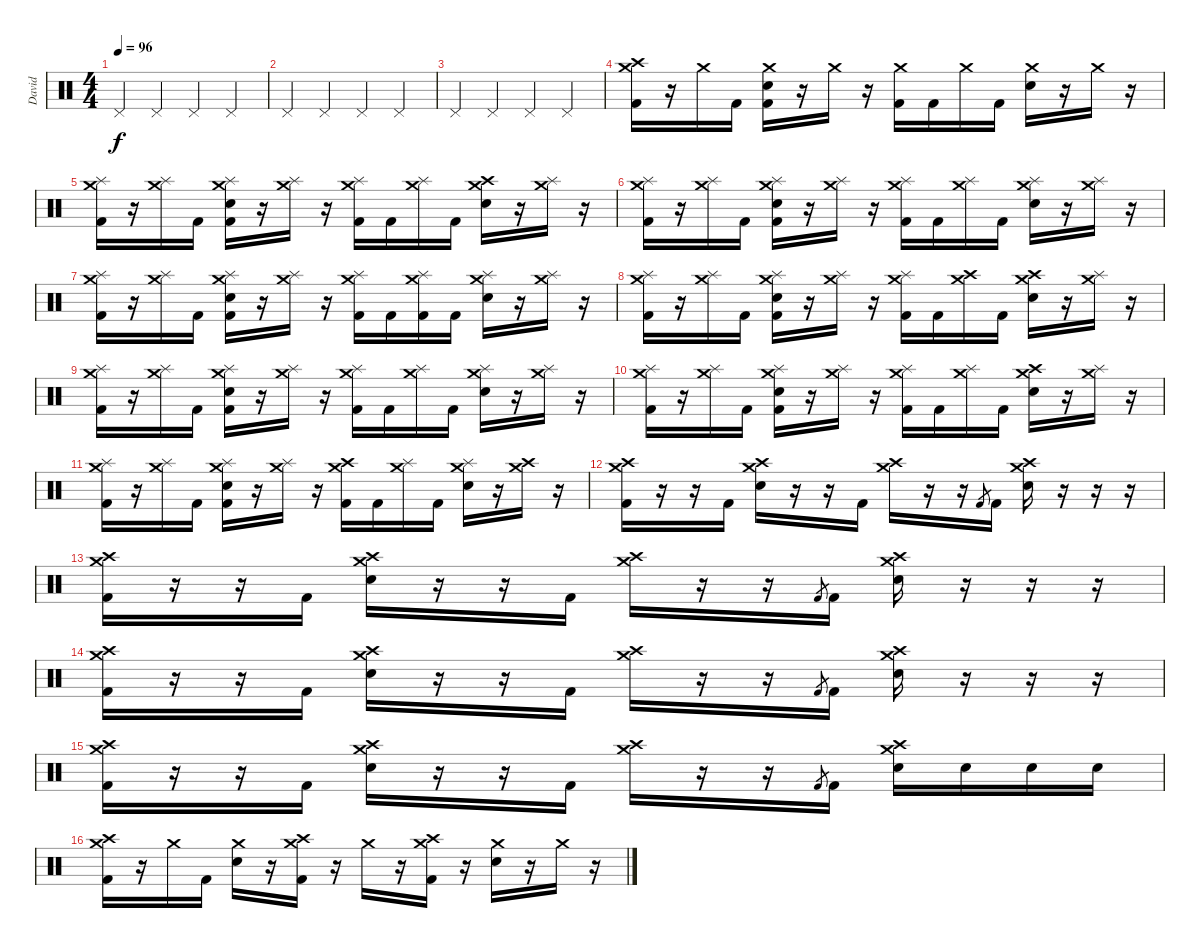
\track ("David" "David") {instrument percussion}
\staff {score}
\articulation defaults
\ts (4 4)
\tempo 96
\clef neutral
\ks c "Pedal Hi-Hat (hit)".4{dy f} "Pedal Hi-Hat (hit)".4 "Pedal Hi-Hat (hit)".4 "Pedal Hi-Hat (hit)".4
|
"Pedal Hi-Hat (hit)".4 "Pedal Hi-Hat (hit)".4 "Pedal Hi-Hat (hit)".4 "Pedal Hi-Hat (hit)".4 |
"Pedal Hi-Hat (hit)".4 "Pedal Hi-Hat (hit)".4 "Pedal Hi-Hat (hit)".4 "Pedal Hi-Hat (hit)".4 |
("Crash high (hit)" "Crash medium (hit)" "Kick (hit) 2").16 r.16 "Crash medium (hit)".16 "Kick (hit) 2".16 ("Crash medium (hit)" "Electric Snare (hit)" "Kick (hit) 2").16 r.16 "Crash medium (hit)".16 r.16 ("Crash medium (hit)" "Kick (hit) 2").16 "Kick (hit) 2".16 "Crash medium (hit)".16 "Kick (hit) 2".16 ("Crash medium (hit)" "Electric Snare (hit)").16 r.16 "Crash medium (hit)".16 r.16 |
("Splash (hit)" "Crash medium (hit)" "Kick (hit) 2").16 r.16 ("Splash (hit)" "Crash medium (hit)").16 "Kick (hit) 2".16 ("Splash (hit)" "Crash medium (hit)" "Electric Snare (hit)" "Kick (hit) 2").16 r.16 ("Splash (hit)" "Crash medium (hit)").16 r.16 ("Splash (hit)" "Crash medium (hit)" "Kick (hit) 2").16 "Kick (hit) 2".16 ("Splash (hit)" "Crash medium (hit)").16 "Kick (hit) 2".16 ("Crash high (hit)" "Crash medium (hit)" "Electric Snare (hit)").16 r.16 ("Splash (hit)" "Crash medium (hit)").16 r.16 |
("Splash (hit)" "Crash medium (hit)" "Kick (hit) 2").16 r.16 ("Splash (hit)" "Crash medium (hit)").16 "Kick (hit) 2".16 ("Splash (hit)" "Crash medium (hit)" "Electric Snare (hit)" "Kick (hit) 2").16 r.16 ("Splash (hit)" "Crash medium (hit)").16 r.16 ("Splash (hit)" "Crash medium (hit)" "Kick (hit) 2").16 "Kick (hit) 2".16 ("Splash (hit)" "Crash medium (hit)").16 "Kick (hit) 2".16 ("Splash (hit)" "Crash medium (hit)" "Electric Snare (hit)").16 r.16 ("Splash (hit)" "Crash medium (hit)").16 r.16 |
("Splash (hit)" "Crash medium (hit)" "Kick (hit) 2").16 r.16 ("Splash (hit)" "Crash medium (hit)").16 "Kick (hit) 2".16 ("Splash (hit)" "Crash medium (hit)" "Electric Snare (hit)" "Kick (hit) 2").16 r.16 ("Splash (hit)" "Crash medium (hit)").16 r.16 ("Splash (hit)" "Crash medium (hit)" "Kick (hit) 2").16 "Kick (hit) 2".16 ("Splash (hit)" "Crash medium (hit)" "Kick (hit) 2").16 "Kick (hit) 2".16 ("Splash (hit)" "Crash medium (hit)" "Electric Snare (hit)").16 r.16 ("Splash (hit)" "Crash medium (hit)").16 r.16 |
("Splash (hit)" "Crash medium (hit)" "Kick (hit) 2").16 r.16 ("Splash (hit)" "Crash medium (hit)").16 "Kick (hit) 2".16 ("Splash (hit)" "Crash medium (hit)" "Electric Snare (hit)" "Kick (hit) 2").16 r.16 ("Splash (hit)" "Crash medium (hit)").16 r.16 ("Splash (hit)" "Crash medium (hit)" "Kick (hit) 2").16 "Kick (hit) 2".16 ("Crash high (hit)" "Crash medium (hit)").16 "Kick (hit) 2".16 ("Crash high (hit)" "Crash medium (hit)" "Electric Snare (hit)").16 r.16 ("Splash (hit)" "Crash medium (hit)").16 r.16 |
("Splash (hit)" "Crash medium (hit)" "Kick (hit) 2").16 r.16 ("Splash (hit)" "Crash medium (hit)").16 "Kick (hit) 2".16 ("Splash (hit)" "Crash medium (hit)" "Electric Snare (hit)" "Kick (hit) 2").16 r.16 ("Splash (hit)" "Crash medium (hit)").16 r.16 ("Splash (hit)" "Crash medium (hit)" "Kick (hit) 2").16 "Kick (hit) 2".16 ("Splash (hit)" "Crash medium (hit)").16 "Kick (hit) 2".16 ("Splash (hit)" "Crash medium (hit)" "Electric Snare (hit)").16 r.16 ("Splash (hit)" "Crash medium (hit)").16 r.16 |
("Splash (hit)" "Crash medium (hit)" "Kick (hit) 2").16 r.16 ("Splash (hit)" "Crash medium (hit)").16 "Kick (hit) 2".16 ("Splash (hit)" "Crash medium (hit)" "Electric Snare (hit)" "Kick (hit) 2").16 r.16 ("Splash (hit)" "Crash medium (hit)").16 r.16 ("Splash (hit)" "Crash medium (hit)" "Kick (hit) 2").16 "Kick (hit) 2".16 ("Splash (hit)" "Crash medium (hit)").16 "Kick (hit) 2".16 ("Crash high (hit)" "Crash medium (hit)" "Electric Snare (hit)").16 r.16 ("Splash (hit)" "Crash medium (hit)").16 r.16 |
("Splash (hit)" "Crash medium (hit)" "Kick (hit) 2").16 r.16 ("Splash (hit)" "Crash medium (hit)").16 "Kick (hit) 2".16 ("Splash (hit)" "Crash medium (hit)" "Electric Snare (hit)" "Kick (hit) 2").16 r.16 ("Splash (hit)" "Crash medium (hit)").16 r.16 ("Crash high (hit)" "Crash medium (hit)" "Kick (hit) 2").16 "Kick (hit) 2".16 ("Splash (hit)" "Crash medium (hit)").16 "Kick (hit) 2".16 ("Splash (hit)" "Crash medium (hit)" "Electric Snare (hit)").16 r.16 ("Crash high (hit)" "Crash medium (hit)").16 r.16 |
("Crash high (hit)" "Crash medium (hit)" "Kick (hit) 2").16 r.16 r.16 "Kick (hit) 2".16 ("Crash high (hit)" "Crash medium (hit)" "Electric Snare (hit)").16 r.16 r.16 "Kick (hit) 2".16 ("Crash high (hit)" "Crash medium (hit)").16 r.16 r.16 "Kick (hit) 2".8{gr} "Kick (hit) 2".16 ("Crash high (hit)" "Crash medium (hit)" "Electric Snare (hit)").16 r.16 r.16 r.16 |
("Crash high (hit)" "Crash medium (hit)" "Kick (hit) 2").16 r.16 r.16 "Kick (hit) 2".16 ("Crash high (hit)" "Crash medium (hit)" "Electric Snare (hit)").16 r.16 r.16 "Kick (hit) 2".16 ("Crash high (hit)" "Crash medium (hit)").16 r.16 r.16 "Kick (hit) 2".8{gr} "Kick (hit) 2".16 ("Crash high (hit)" "Crash medium (hit)" "Electric Snare (hit)").16 r.16 r.16 r.16 |
("Crash high (hit)" "Crash medium (hit)" "Kick (hit) 2").16 r.16 r.16 "Kick (hit) 2".16 ("Crash high (hit)" "Crash medium (hit)" "Electric Snare (hit)").16 r.16 r.16 "Kick (hit) 2".16 ("Crash high (hit)" "Crash medium (hit)").16 r.16 r.16 "Kick (hit) 2".8{gr} "Kick (hit) 2".16 ("Crash high (hit)" "Crash medium (hit)" "Electric Snare (hit)").16 r.16 r.16 r.16 |
("Crash high (hit)" "Crash medium (hit)" "Kick (hit) 2").16 r.16 r.16 "Kick (hit) 2".16 ("Crash high (hit)" "Crash medium (hit)" "Electric Snare (hit)").16 r.16 r.16 "Kick (hit) 2".16 ("Crash high (hit)" "Crash medium (hit)").16 r.16 r.16 "Kick (hit) 2".8{gr} "Kick (hit) 2".16 ("Crash high (hit)" "Crash medium (hit)" "Electric Snare (hit)").16 "Electric Snare (hit)".16 "Electric Snare (hit)".16 "Electric Snare (hit)".16 |
("Crash high (hit)" "Crash medium (hit)" "Kick (hit) 2").16 r.16 "Crash medium (hit)".16 "Kick (hit) 2".16 ("Crash medium (hit)" "Electric Snare (hit)").16 r.16 ("Crash high (hit)" "Crash medium (hit)" "Kick (hit) 2").16 r.16 "Crash medium (hit)".16 r.16 ("Crash high (hit)" "Crash medium (hit)" "Kick (hit) 2").16 r.16 ("Crash medium (hit)" "Electric Snare (hit)").16 r.16 "Crash medium (hit)".16 r.16
